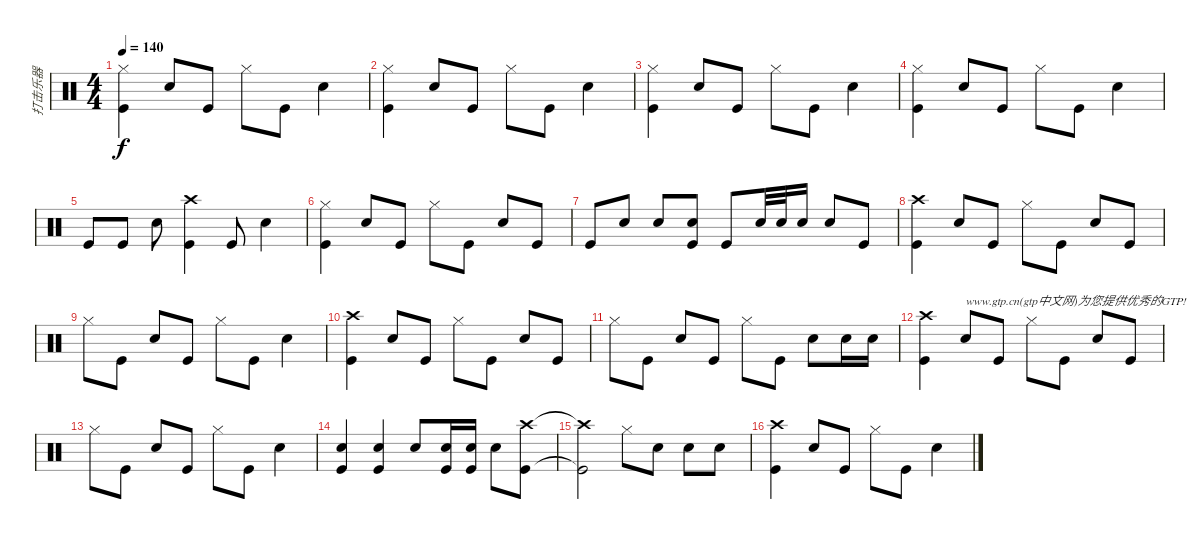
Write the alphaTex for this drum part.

\track ("打击乐器" "打击乐器") {instrument percussion}
\staff {score}
\articulation defaults
\ts (4 4)
\tempo 140
\clef neutral
\ks c
("Hi-Hat (closed)" "Kick (hit)").4{dy f} "Snare (hit) 2".8 "Kick (hit)".8 "Hi-Hat (closed)".8 "Kick (hit)".8 "Snare (hit) 2".4 |
("Hi-Hat (closed)" "Kick (hit)").4 "Snare (hit) 2".8 "Kick (hit)".8 "Hi-Hat (closed)".8 "Kick (hit)".8 "Snare (hit) 2".4 |
("Hi-Hat (closed)" "Kick (hit)").4 "Snare (hit) 2".8 "Kick (hit)".8 "Hi-Hat (closed)".8 "Kick (hit)".8 "Snare (hit) 2".4 |
("Hi-Hat (closed)" "Kick (hit)").4 "Snare (hit) 2".8 "Kick (hit)".8 "Hi-Hat (closed)".8 "Kick (hit)".8 "Snare (hit) 2".4 |
"Kick (hit)".8 "Kick (hit)".8 "Snare (hit) 2".8 ("Crash high (hit)" "Kick (hit)").4 "Kick (hit)".8 "Snare (hit) 2".4 |
("Hi-Hat (closed)" "Kick (hit)").4 "Snare (hit) 2".8 "Kick (hit)".8 "Hi-Hat (closed)".8 "Kick (hit)".8 "Snare (hit) 2".8 "Kick (hit)".8 |
"Kick (hit)".8 "Snare (hit) 2".8 "Snare (hit) 2".8 ("Snare (hit) 2" "Kick (hit)").8 "Kick (hit)".8 "Snare (hit) 2".32 "Snare (hit) 2".32 "Snare (hit) 2".16 "Snare (hit) 2".8 "Kick (hit)".8 |
("Kick (hit)" "Crash high (hit)").4 "Snare (hit) 2".8 "Kick (hit)".8 "Hi-Hat (closed)".8 "Kick (hit)".8 "Snare (hit) 2".8 "Kick (hit)".8 |
"Hi-Hat (closed)".8 "Kick (hit)".8 "Snare (hit) 2".8 "Kick (hit)".8 "Hi-Hat (closed)".8 "Kick (hit)".8 "Snare (hit) 2".4 |
("Crash high (hit)" "Kick (hit)").4 "Snare (hit) 2".8 "Kick (hit)".8 "Hi-Hat (closed)".8 "Kick (hit)".8 "Snare (hit) 2".8 "Kick (hit)".8 |
"Hi-Hat (closed)".8 "Kick (hit)".8 "Snare (hit) 2".8 "Kick (hit)".8 "Hi-Hat (closed)".8 "Kick (hit)".8 "Snare (hit) 2".8 "Snare (hit) 2".16 "Snare (hit) 2".16 |
("Crash high (hit)" "Kick (hit)").4 "Snare (hit) 2".8{txt "www.gtp.cn(gtp中文网)为您提供优秀的GTP!"} "Kick (hit)".8 "Hi-Hat (closed)".8 "Kick (hit)".8 "Snare (hit) 2".8 "Kick (hit)".8 |
"Hi-Hat (closed)".8 "Kick (hit)".8 "Snare (hit) 2".8 "Kick (hit)".8 "Hi-Hat (closed)".8 "Kick (hit)".8 "Snare (hit) 2".4 |
("Snare (hit) 2" "Kick (hit)").4 ("Kick (hit)" "Snare (hit) 2").4 "Snare (hit) 2".8 ("Snare (hit) 2" "Kick (hit)").16 ("Snare (hit) 2" "Kick (hit)").16 "Snare (hit) 2".8 ("Crash high (hit)" "Kick (hit)").8 |
("Crash high (hit)"{t} "Kick (hit)"{t}).2 "Hi-Hat (closed)".8 "Snare (hit) 2".8 "Snare (hit) 2".8 "Snare (hit) 2".8 |
("Crash high (hit)" "Kick (hit)").4 "Snare (hit) 2".8 "Kick (hit)".8 "Hi-Hat (closed)".8 "Kick (hit)".8 "Snare (hit) 2".4
